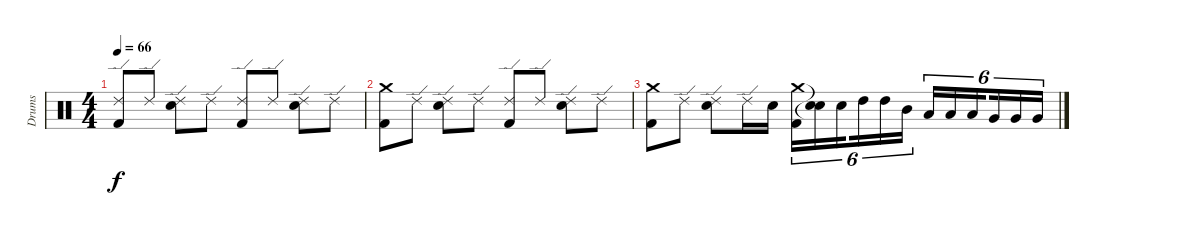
\track ("Drums" "Drums") {instrument percussion}
\staff {score}
\articulation defaults
\ts (4 4)
\tempo 66
\clef neutral
\ks c
("Ride (edge) 2" "Kick (hit) 2").8{dy f} "Ride (edge) 2".8{volume 4} ("Ride (edge) 2" "Snare (hit) 2").8{volume 4} "Ride (edge) 2".8 ("Ride (edge) 2" "Kick (hit) 2").8{volume 3} "Ride (edge) 2".8{volume 3} ("Ride (edge) 2" "Snare (hit) 2").8{volume 3} "Ride (edge) 2".8 |
("Crash medium (hit)" "Kick (hit) 2").8{volume 2} "Ride (edge) 2".8 ("Ride (edge) 2" "Snare (hit) 2").8{volume 2} "Ride (edge) 2".8{volume 1} ("Ride (edge) 2" "Kick (hit) 2").8{volume 1} "Ride (edge) 2".8{volume 0} ("Ride (edge) 2" "Snare (hit) 2").8{volume 0} "Ride (edge) 2".8{volume 0} |
("Crash medium (hit)" "Kick (hit) 2").8 "Ride (edge) 2".8 ("Snare (hit) 2" "Ride (edge) 2").8{volume 0} "Ride (edge) 2".16 "Snare (hit) 2".16 ("Crash medium (hit)" "Kick (hit) 2").16{tu (6 4)} ("Snare (hit)"{t} "Snare (hit)"{t}).16{tu (6 4)} "Snare (hit) 2".16{tu (6 4) beam splitsecondary} "High Tom (hit)".16{tu (6 4)} "High Tom (hit)".16{tu (6 4)} "Mid Tom (hit)".16{tu (6 4)} "Low Tom (hit)".16{tu (6 4)} "Low Tom (hit)".16{tu (6 4)} "Low Tom (hit)".16{tu (6 4) beam splitsecondary} "Very Low Tom (hit)".16{tu (6 4)} "Very Low Tom (hit)".16{tu (6 4)} "Very Low Tom (hit)".16{tu (6 4)}
